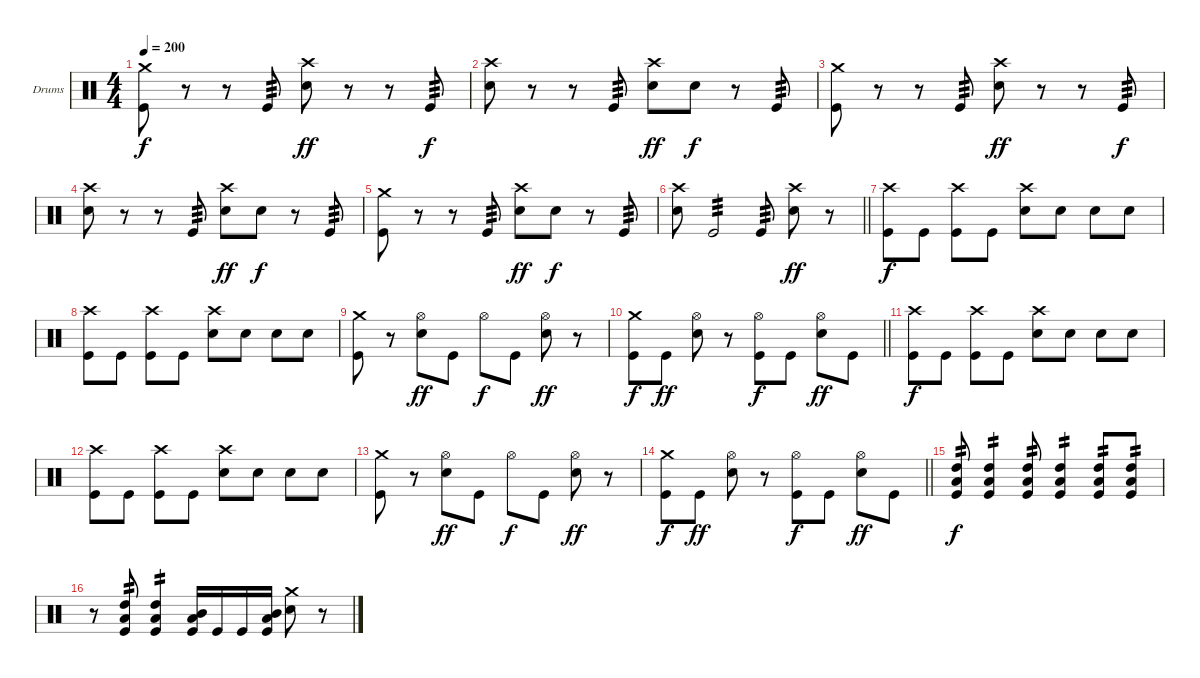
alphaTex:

\bracketExtendMode groupsimilarinstruments
\firstSystemTrackNameOrientation horizontal
\otherSystemsTrackNameOrientation horizontal
\track ("Drumkit" "Drums") {instrument percussion}
\staff {score}
\articulation defaults
\ts (4 4)
\tempo 200
\clef neutral
\ks c
("Crash medium (hit)" "Kick (hit)").8{dy f} r.8 r.8 "Kick (hit)".8{tp 3} ("Crash high (hit)" "Snare (hit) 2").8{dy ff} r.8 r.8 "Kick (hit)".8{tp 3 dy f} |
("Crash high (hit)" "Snare (hit) 2").8 r.8 r.8 "Kick (hit)".8{tp 3} ("Crash high (hit)" "Snare (hit) 2").8{dy ff} "Snare (hit) 2".8{dy f} r.8 "Kick (hit)".8{tp 3} |
("Crash medium (hit)" "Kick (hit)").8 r.8 r.8 "Kick (hit)".8{tp 3} ("Crash high (hit)" "Snare (hit) 2").8{dy ff} r.8 r.8 "Kick (hit)".8{tp 3 dy f} |
("Crash high (hit)" "Snare (hit) 2").8 r.8 r.8 "Kick (hit)".8{tp 3} ("Crash high (hit)" "Snare (hit) 2").8{dy ff} "Snare (hit) 2".8{dy f} r.8 "Kick (hit)".8{tp 3} |
("Crash medium (hit)" "Kick (hit)").8 r.8 r.8 "Kick (hit)".8{tp 3} ("Crash high (hit)" "Snare (hit) 2").8{dy ff} "Snare (hit) 2".8{dy f} r.8 "Kick (hit)".8{tp 3} |
\barLineRight lightlight
("Crash high (hit)" "Snare (hit) 2").8 "Kick (hit)".2{tp 3} "Kick (hit)".8{tp 3} ("Crash high (hit)" "Snare (hit) 2").8{dy ff} r.8 |
\section ("" "")
("Crash high (hit)" "Kick (hit)").8{dy f} "Kick (hit)".8 ("Crash high (hit)" "Kick (hit)").8 "Kick (hit)".8 ("Crash high (hit)" "Snare (hit) 2").8 "Snare (hit) 2".8 "Snare (hit) 2".8 "Snare (hit) 2".8 |
("Crash high (hit)" "Kick (hit)").8 "Kick (hit)".8 ("Crash high (hit)" "Kick (hit)").8 "Kick (hit)".8 ("Crash high (hit)" "Snare (hit) 2").8 "Snare (hit) 2".8 "Snare (hit) 2".8 "Snare (hit) 2".8 |
("Crash medium (hit)" "Kick (hit)").8 r.8 ("Hi-Hat (open)" "Snare (hit) 2").8{dy ff} "Kick (hit)".8 "Hi-Hat (open)".8{dy f} "Kick (hit)".8 ("Hi-Hat (open)" "Snare (hit) 2").8{dy ff} r.8 |
\barLineRight lightlight
("Crash medium (hit)" "Kick (hit)").8{dy f} "Kick (hit)".8{dy ff} ("Hi-Hat (open)" "Snare (hit) 2").8 r.8 ("Hi-Hat (open)" "Kick (hit)").8{dy f} "Kick (hit)".8 ("Hi-Hat (open)" "Snare (hit) 2").8{dy ff} "Kick (hit)".8 |
("Crash high (hit)" "Kick (hit)").8{dy f} "Kick (hit)".8 ("Crash high (hit)" "Kick (hit)").8 "Kick (hit)".8 ("Crash high (hit)" "Snare (hit) 2").8 "Snare (hit) 2".8 "Snare (hit) 2".8 "Snare (hit) 2".8 |
("Crash high (hit)" "Kick (hit)").8 "Kick (hit)".8 ("Crash high (hit)" "Kick (hit)").8 "Kick (hit)".8 ("Crash high (hit)" "Snare (hit) 2").8 "Snare (hit) 2".8 "Snare (hit) 2".8 "Snare (hit) 2".8 |
("Crash medium (hit)" "Kick (hit)").8 r.8 ("Hi-Hat (open)" "Snare (hit) 2").8{dy ff} "Kick (hit)".8 "Hi-Hat (open)".8{dy f} "Kick (hit)".8 ("Hi-Hat (open)" "Snare (hit) 2").8{dy ff} r.8 |
\barLineRight lightlight
("Crash medium (hit)" "Kick (hit)").8{dy f} "Kick (hit)".8{dy ff} ("Hi-Hat (open)" "Snare (hit) 2").8 r.8 ("Hi-Hat (open)" "Kick (hit)").8{dy f} "Kick (hit)".8 ("Hi-Hat (open)" "Snare (hit) 2").8{dy ff} "Kick (hit)".8 |
\section ("" "")
("High Tom (hit)" "Low Tom (hit)" "Kick (hit)").8{tp 2 dy f} ("High Tom (hit)" "Low Tom (hit)" "Kick (hit)").4{tp 2} ("High Tom (hit)" "Low Tom (hit)" "Kick (hit)").8{tp 2} ("High Tom (hit)" "Low Tom (hit)" "Kick (hit)").4{tp 2} ("High Tom (hit)" "Low Tom (hit)" "Kick (hit)").8{tp 2} ("High Tom (hit)" "Low Tom (hit)" "Kick (hit)").8{tp 2} |
r.8 ("High Tom (hit)" "Low Tom (hit)" "Kick (hit)").8{tp 2} ("High Tom (hit)" "Low Tom (hit)" "Kick (hit)").4{tp 2} ("Mid Tom (hit)" "Low Tom (hit)" "Kick (hit)").16 "Kick (hit)".16 "Kick (hit)".16 ("Mid Tom (hit)" "Low Tom (hit)" "Kick (hit)").16 ("Crash medium (hit)" "Snare (hit) 2").8 r.8
